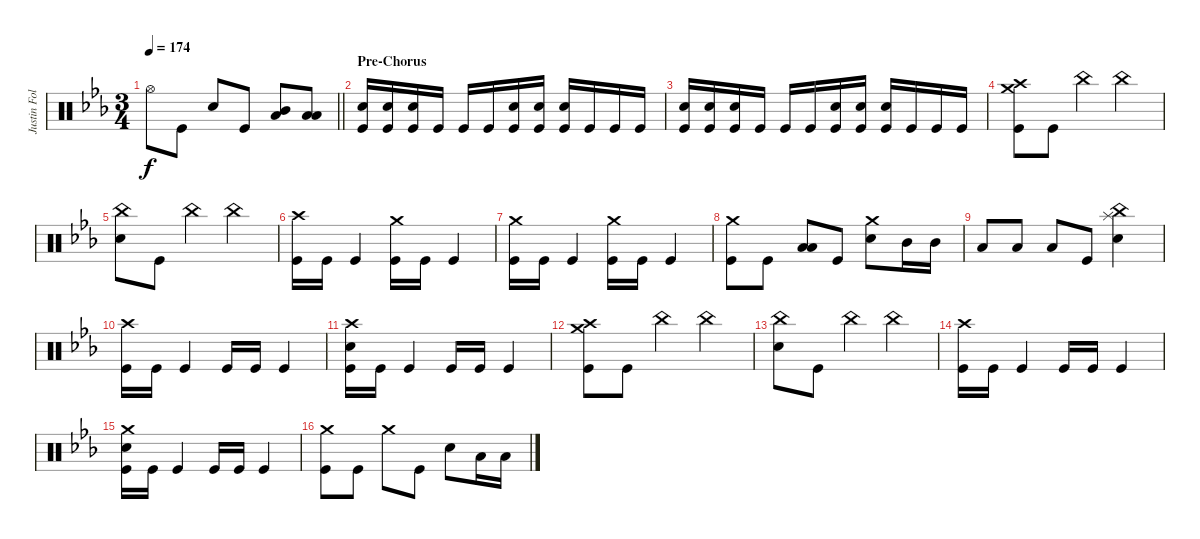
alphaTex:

\track ("Justin Foley" "Justin Fol") {instrument percussion}
\staff {score}
\articulation defaults
\ts (3 4)
\tempo 174
\clef neutral
\barLineRight lightlight
\ks cminor "Hi-Hat (open)".8{dy f} "Kick (hit)".8 "Snare (hit) 2".8 "Kick (hit)".8
("Low Tom (hit)" "Mid Tom (hit)").8 ("Low Floor Tom (hit)" "Low Tom (hit)").8 |
\section ("" "Pre-Chorus")
("Snare (hit) 2" "Kick (hit)").16 ("Snare (hit) 2" "Kick (hit)").16 ("Snare (hit) 2" "Kick (hit)").16 "Kick (hit)".16 "Kick (hit)".16 "Kick (hit)".16 ("Snare (hit) 2" "Kick (hit)").16 ("Snare (hit) 2" "Kick (hit)").16 ("Snare (hit) 2" "Kick (hit)").16 "Kick (hit)".16 "Kick (hit)".16 "Kick (hit)".16 |
("Snare (hit) 2" "Kick (hit)").16 ("Snare (hit) 2" "Kick (hit)").16 ("Snare (hit) 2" "Kick (hit)").16 "Kick (hit)".16 "Kick (hit)".16 "Kick (hit)".16 ("Snare (hit) 2" "Kick (hit)").16 ("Snare (hit) 2" "Kick (hit)").16 ("Snare (hit) 2" "Kick (hit)").16 "Kick (hit)".16 "Kick (hit)".16 "Kick (hit)".16 |
("Crash medium (hit)" "Kick (hit)" "Crash high (hit)").8 "Kick (hit)".8 "China (hit)".4 "China (hit)".4 |
("Snare (hit) 2" "China (hit)").8 "Kick (hit)".8 "China (hit)".4 "China (hit)".4 |
("Crash high (hit)" "Kick (hit)").16 "Kick (hit)".16 "Kick (hit)".4 ("Kick (hit)" "Crash medium (hit)").16 "Kick (hit)".16 "Kick (hit)".4 |
("Kick (hit)" "Crash medium (hit)").16 "Kick (hit)".16 "Kick (hit)".4 ("Kick (hit)" "Crash medium (hit)").16 "Kick (hit)".16 "Kick (hit)".4 |
("Crash medium (hit)" "Kick (hit)").8 "Kick (hit)".8 ("Low Tom (hit)" "Low Floor Tom (hit)").8 "Kick (hit)".8 ("Snare (hit) 2" "Crash medium (hit)").8 "Mid Tom (hit)".16 "Mid Tom (hit)".16 |
"Low Tom (hit)".8 "Low Floor Tom (hit)".8 "Low Floor Tom (hit)".8 "Kick (hit)".8 ("Snare (hit) 2" "Splash (hit)" "China (hit)").4 |
("Crash high (hit)" "Kick (hit)").16 "Kick (hit)".16 "Kick (hit)".4 "Kick (hit)".16 "Kick (hit)".16 "Kick (hit)".4 |
("Crash high (hit)" "Snare (hit) 2" "Kick (hit)").16 "Kick (hit)".16 "Kick (hit)".4 "Kick (hit)".16 "Kick (hit)".16 "Kick (hit)".4 |
("Crash medium (hit)" "Kick (hit)" "Crash high (hit)").8 "Kick (hit)".8 "China (hit)".4 "China (hit)".4 |
("Snare (hit) 2" "China (hit)").8 "Kick (hit)".8 "China (hit)".4 "China (hit)".4 |
("Crash high (hit)" "Kick (hit)").16 "Kick (hit)".16 "Kick (hit)".4 "Kick (hit)".16 "Kick (hit)".16 "Kick (hit)".4 |
("Snare (hit) 2" "Kick (hit)" "Crash medium (hit)").16 "Kick (hit)".16 "Kick (hit)".4 "Kick (hit)".16 "Kick (hit)".16 "Kick (hit)".4 |
("Crash medium (hit)" "Kick (hit)").8 "Kick (hit)".8 "Crash medium (hit)".8 "Kick (hit)".8 "Snare (hit) 2".8 "Low Tom (hit)".16 "Low Tom (hit)".16
